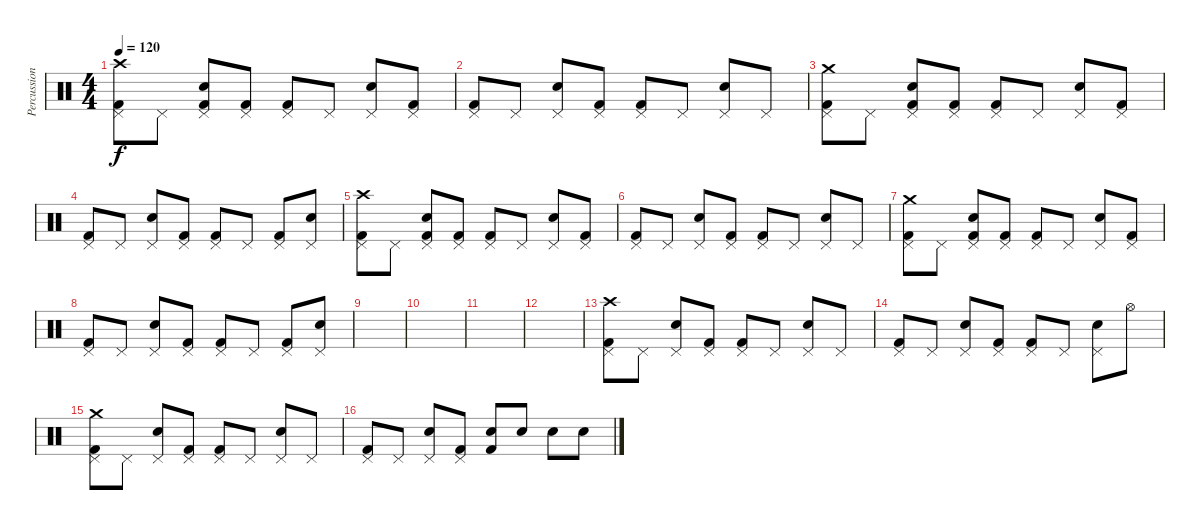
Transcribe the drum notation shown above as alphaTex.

\track ("Percussion" "Percussion") {instrument percussion}
\staff {score}
\articulation defaults
\ts (4 4)
\tempo 120
\clef neutral
\ks c
("Crash high (hit)" "Pedal Hi-Hat (hit)" "Kick (hit) 2").8{dy f} "Pedal Hi-Hat (hit)".8 ("Snare (hit) 2" "Pedal Hi-Hat (hit)" "Kick (hit) 2").8 ("Pedal Hi-Hat (hit)" "Kick (hit) 2").8 ("Pedal Hi-Hat (hit)" "Kick (hit) 2").8 "Pedal Hi-Hat (hit)".8 ("Snare (hit) 2" "Pedal Hi-Hat (hit)").8 ("Pedal Hi-Hat (hit)" "Kick (hit) 2").8 |
("Pedal Hi-Hat (hit)" "Kick (hit) 2").8 "Pedal Hi-Hat (hit)".8 ("Snare (hit) 2" "Pedal Hi-Hat (hit)").8 ("Pedal Hi-Hat (hit)" "Kick (hit) 2").8 ("Pedal Hi-Hat (hit)" "Kick (hit) 2").8 "Pedal Hi-Hat (hit)".8 ("Snare (hit) 2" "Pedal Hi-Hat (hit)").8 "Pedal Hi-Hat (hit)".8 |
("Crash medium (hit)" "Pedal Hi-Hat (hit)" "Kick (hit) 2").8 "Pedal Hi-Hat (hit)".8 ("Snare (hit) 2" "Pedal Hi-Hat (hit)" "Kick (hit) 2").8 ("Pedal Hi-Hat (hit)" "Kick (hit) 2").8 ("Pedal Hi-Hat (hit)" "Kick (hit) 2").8 "Pedal Hi-Hat (hit)".8 ("Snare (hit) 2" "Pedal Hi-Hat (hit)").8 ("Pedal Hi-Hat (hit)" "Kick (hit) 2").8 |
("Pedal Hi-Hat (hit)" "Kick (hit) 2").8 "Pedal Hi-Hat (hit)".8 ("Snare (hit) 2" "Pedal Hi-Hat (hit)").8 ("Pedal Hi-Hat (hit)" "Kick (hit) 2").8 ("Pedal Hi-Hat (hit)" "Kick (hit) 2").8 "Pedal Hi-Hat (hit)".8 ("Pedal Hi-Hat (hit)" "Kick (hit) 2").8 ("Snare (hit) 2" "Pedal Hi-Hat (hit)").8 |
("Crash high (hit)" "Pedal Hi-Hat (hit)" "Kick (hit) 2").8 "Pedal Hi-Hat (hit)".8 ("Snare (hit) 2" "Pedal Hi-Hat (hit)" "Kick (hit) 2").8 ("Pedal Hi-Hat (hit)" "Kick (hit) 2").8 ("Pedal Hi-Hat (hit)" "Kick (hit) 2").8 "Pedal Hi-Hat (hit)".8 ("Snare (hit) 2" "Pedal Hi-Hat (hit)").8 ("Pedal Hi-Hat (hit)" "Kick (hit) 2").8 |
("Pedal Hi-Hat (hit)" "Kick (hit) 2").8 "Pedal Hi-Hat (hit)".8 ("Snare (hit) 2" "Pedal Hi-Hat (hit)").8 ("Pedal Hi-Hat (hit)" "Kick (hit) 2").8 ("Pedal Hi-Hat (hit)" "Kick (hit) 2").8 "Pedal Hi-Hat (hit)".8 ("Snare (hit) 2" "Pedal Hi-Hat (hit)").8 "Pedal Hi-Hat (hit)".8 |
("Crash medium (hit)" "Pedal Hi-Hat (hit)" "Kick (hit) 2").8 "Pedal Hi-Hat (hit)".8 ("Snare (hit) 2" "Pedal Hi-Hat (hit)" "Kick (hit) 2").8 ("Pedal Hi-Hat (hit)" "Kick (hit) 2").8 ("Pedal Hi-Hat (hit)" "Kick (hit) 2").8 "Pedal Hi-Hat (hit)".8 ("Snare (hit) 2" "Pedal Hi-Hat (hit)").8 ("Pedal Hi-Hat (hit)" "Kick (hit) 2").8 |
("Pedal Hi-Hat (hit)" "Kick (hit) 2").8 "Pedal Hi-Hat (hit)".8 ("Snare (hit) 2" "Pedal Hi-Hat (hit)").8 ("Pedal Hi-Hat (hit)" "Kick (hit) 2").8 ("Pedal Hi-Hat (hit)" "Kick (hit) 2").8 "Pedal Hi-Hat (hit)".8 ("Pedal Hi-Hat (hit)" "Kick (hit) 2").8 ("Snare (hit) 2" "Pedal Hi-Hat (hit)").8 |
|
|
|
|
("Crash high (hit)" "Pedal Hi-Hat (hit)" "Kick (hit) 2").8 "Pedal Hi-Hat (hit)".8 ("Snare (hit) 2" "Pedal Hi-Hat (hit)").8 ("Pedal Hi-Hat (hit)" "Kick (hit) 2").8 ("Pedal Hi-Hat (hit)" "Kick (hit) 2").8 "Pedal Hi-Hat (hit)".8 ("Snare (hit) 2" "Pedal Hi-Hat (hit)").8 "Pedal Hi-Hat (hit)".8 |
("Pedal Hi-Hat (hit)" "Kick (hit) 2").8 "Pedal Hi-Hat (hit)".8 ("Snare (hit) 2" "Pedal Hi-Hat (hit)").8 ("Pedal Hi-Hat (hit)" "Kick (hit) 2").8 ("Pedal Hi-Hat (hit)" "Kick (hit) 2").8 "Pedal Hi-Hat (hit)".8 ("Snare (hit) 2" "Pedal Hi-Hat (hit)").8 "Hi-Hat (open)".8 |
("Crash medium (hit)" "Pedal Hi-Hat (hit)" "Kick (hit) 2").8 "Pedal Hi-Hat (hit)".8 ("Snare (hit) 2" "Pedal Hi-Hat (hit)").8 ("Pedal Hi-Hat (hit)" "Kick (hit) 2").8 ("Pedal Hi-Hat (hit)" "Kick (hit) 2").8 "Pedal Hi-Hat (hit)".8 ("Snare (hit) 2" "Pedal Hi-Hat (hit)").8 "Pedal Hi-Hat (hit)".8 |
("Pedal Hi-Hat (hit)" "Kick (hit) 2").8 "Pedal Hi-Hat (hit)".8 ("Snare (hit) 2" "Pedal Hi-Hat (hit)").8 ("Pedal Hi-Hat (hit)" "Kick (hit) 2").8 ("Snare (hit) 2" "Kick (hit) 2").8 "Snare (hit) 2".8 "Snare (hit) 2".8 "Snare (hit) 2".8
